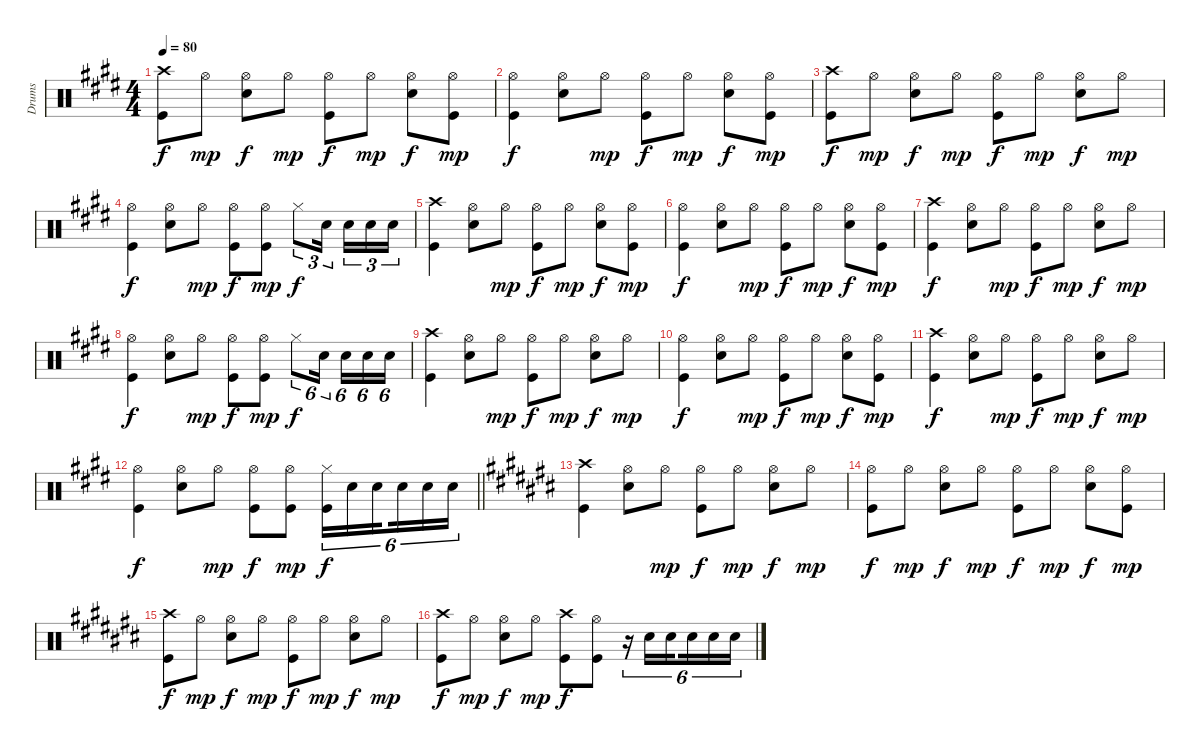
\track ("Drums" "Drums") {instrument percussion}
\staff {score}
\articulation defaults
\ts (4 4)
\tempo 80
\clef neutral
\ks e
("Crash high (hit)" "Kick (hit)").8{dy f} "Hi-Hat (open)".8{dy mp} ("Hi-Hat (open)" "Snare (hit) 2").8{dy f} "Hi-Hat (open)".8{dy mp} ("Hi-Hat (open)" "Kick (hit)").8{dy f} "Hi-Hat (open)".8{dy mp} ("Hi-Hat (open)" "Snare (hit) 2").8{dy f} ("Hi-Hat (open)" "Kick (hit)").8{dy mp} |
("Hi-Hat (open)" "Kick (hit)").4{dy f} ("Hi-Hat (open)" "Snare (hit) 2").8 "Hi-Hat (open)".8{dy mp} ("Hi-Hat (open)" "Kick (hit)").8{dy f} "Hi-Hat (open)".8{dy mp} ("Hi-Hat (open)" "Snare (hit) 2").8{dy f} ("Hi-Hat (open)" "Kick (hit)").8{dy mp} |
("Crash high (hit)" "Kick (hit)").8{dy f} "Hi-Hat (open)".8{dy mp} ("Hi-Hat (open)" "Snare (hit) 2").8{dy f} "Hi-Hat (open)".8{dy mp} ("Hi-Hat (open)" "Kick (hit)").8{dy f} "Hi-Hat (open)".8{dy mp} ("Hi-Hat (open)" "Snare (hit) 2").8{dy f} "Hi-Hat (open)".8{dy mp} |
("Hi-Hat (open)" "Kick (hit)").4{dy f} ("Hi-Hat (open)" "Snare (hit) 2").8 "Hi-Hat (open)".8{dy mp} ("Hi-Hat (open)" "Kick (hit)").8{dy f} ("Hi-Hat (open)" "Kick (hit)").8{dy mp} "Hi-Hat (closed)".8{tu (3 2) dy f} "Snare (hit) 2".16{tu (3 2) beam splitsecondary} "Snare (hit) 2".16{tu (3 2)} "Snare (hit) 2".16{tu (3 2)} "Snare (hit) 2".16{tu (3 2)} |
("Crash high (hit)" "Kick (hit)").4 ("Hi-Hat (open)" "Snare (hit) 2").8 "Hi-Hat (open)".8{dy mp} ("Hi-Hat (open)" "Kick (hit)").8{dy f} "Hi-Hat (open)".8{dy mp} ("Hi-Hat (open)" "Snare (hit) 2").8{dy f} ("Hi-Hat (open)" "Kick (hit)").8{dy mp} |
("Hi-Hat (open)" "Kick (hit)").4{dy f} ("Hi-Hat (open)" "Snare (hit) 2").8 "Hi-Hat (open)".8{dy mp} ("Hi-Hat (open)" "Kick (hit)").8{dy f} "Hi-Hat (open)".8{dy mp} ("Hi-Hat (open)" "Snare (hit) 2").8{dy f} ("Hi-Hat (open)" "Kick (hit)").8{dy mp} |
("Crash high (hit)" "Kick (hit)").4{dy f} ("Hi-Hat (open)" "Snare (hit) 2").8 "Hi-Hat (open)".8{dy mp} ("Hi-Hat (open)" "Kick (hit)").8{dy f} "Hi-Hat (open)".8{dy mp} ("Hi-Hat (open)" "Snare (hit) 2").8{dy f} "Hi-Hat (open)".8{dy mp} |
("Hi-Hat (open)" "Kick (hit)").4{dy f} ("Hi-Hat (open)" "Snare (hit) 2").8 "Hi-Hat (open)".8{dy mp} ("Hi-Hat (open)" "Kick (hit)").8{dy f} ("Hi-Hat (open)" "Kick (hit)").8{dy mp} "Hi-Hat (closed)".8{tu (6 4) dy f} "Snare (hit) 2".16{tu (6 4) beam splitsecondary} "Snare (hit) 2".16{tu (6 4)} "Snare (hit) 2".16{tu (6 4)} "Snare (hit) 2".16{tu (6 4)} |
("Crash high (hit)" "Kick (hit)").4 ("Hi-Hat (open)" "Snare (hit) 2").8 "Hi-Hat (open)".8{dy mp} ("Hi-Hat (open)" "Kick (hit)").8{dy f} "Hi-Hat (open)".8{dy mp} ("Hi-Hat (open)" "Snare (hit) 2").8{dy f} "Hi-Hat (open)".8{dy mp} |
("Hi-Hat (open)" "Kick (hit)").4{dy f} ("Hi-Hat (open)" "Snare (hit) 2").8 "Hi-Hat (open)".8{dy mp} ("Hi-Hat (open)" "Kick (hit)").8{dy f} "Hi-Hat (open)".8{dy mp} ("Hi-Hat (open)" "Snare (hit) 2").8{dy f} ("Hi-Hat (open)" "Kick (hit)").8{dy mp} |
("Crash high (hit)" "Kick (hit)").4{dy f} ("Hi-Hat (open)" "Snare (hit) 2").8 "Hi-Hat (open)".8{dy mp} ("Hi-Hat (open)" "Kick (hit)").8{dy f} "Hi-Hat (open)".8{dy mp} ("Hi-Hat (open)" "Snare (hit) 2").8{dy f} "Hi-Hat (open)".8{dy mp} |
\barLineRight lightlight
("Hi-Hat (open)" "Kick (hit)").4{dy f} ("Hi-Hat (open)" "Snare (hit) 2").8 "Hi-Hat (open)".8{dy mp} ("Hi-Hat (open)" "Kick (hit)").8{dy f} ("Hi-Hat (open)" "Kick (hit)").8{dy mp} ("Hi-Hat (closed)" "Kick (hit)").16{tu (6 4) dy f} "Snare (hit) 2".16{tu (6 4)} "Snare (hit) 2".16{tu (6 4) beam splitsecondary} "Snare (hit) 2".16{tu (6 4)} "Snare (hit) 2".16{tu (6 4)} "Snare (hit) 2".16{tu (6 4)} |
\ks c#
("Crash high (hit)" "Kick (hit)").4 ("Hi-Hat (open)" "Snare (hit) 2").8 "Hi-Hat (open)".8{dy mp} ("Hi-Hat (open)" "Kick (hit)").8{dy f} "Hi-Hat (open)".8{dy mp} ("Hi-Hat (open)" "Snare (hit) 2").8{dy f} "Hi-Hat (open)".8{dy mp} |
("Hi-Hat (open)" "Kick (hit)").8{dy f} "Hi-Hat (open)".8{dy mp} ("Hi-Hat (open)" "Snare (hit) 2").8{dy f} "Hi-Hat (open)".8{dy mp} ("Hi-Hat (open)" "Kick (hit)").8{dy f} "Hi-Hat (open)".8{dy mp} ("Hi-Hat (open)" "Snare (hit) 2").8{dy f} ("Hi-Hat (open)" "Kick (hit)").8{dy mp} |
("Crash high (hit)" "Kick (hit)").8{dy f} "Hi-Hat (open)".8{dy mp} ("Hi-Hat (open)" "Snare (hit) 2").8{dy f} "Hi-Hat (open)".8{dy mp} ("Hi-Hat (open)" "Kick (hit)").8{dy f} "Hi-Hat (open)".8{dy mp} ("Hi-Hat (open)" "Snare (hit) 2").8{dy f} "Hi-Hat (open)".8{dy mp} |
("Crash high (hit)" "Kick (hit)").8{dy f} "Hi-Hat (open)".8{dy mp} ("Hi-Hat (open)" "Snare (hit) 2").8{dy f} "Hi-Hat (open)".8{dy mp} ("Crash high (hit)" "Kick (hit)").8{dy f} ("Hi-Hat (open)" "Kick (hit)").8 r.16{tu (6 4)} "Snare (hit) 2".16{tu (6 4)} "Snare (hit) 2".16{tu (6 4) beam splitsecondary} "Snare (hit) 2".16{tu (6 4)} "Snare (hit) 2".16{tu (6 4)} "Snare (hit) 2".16{tu (6 4)}
